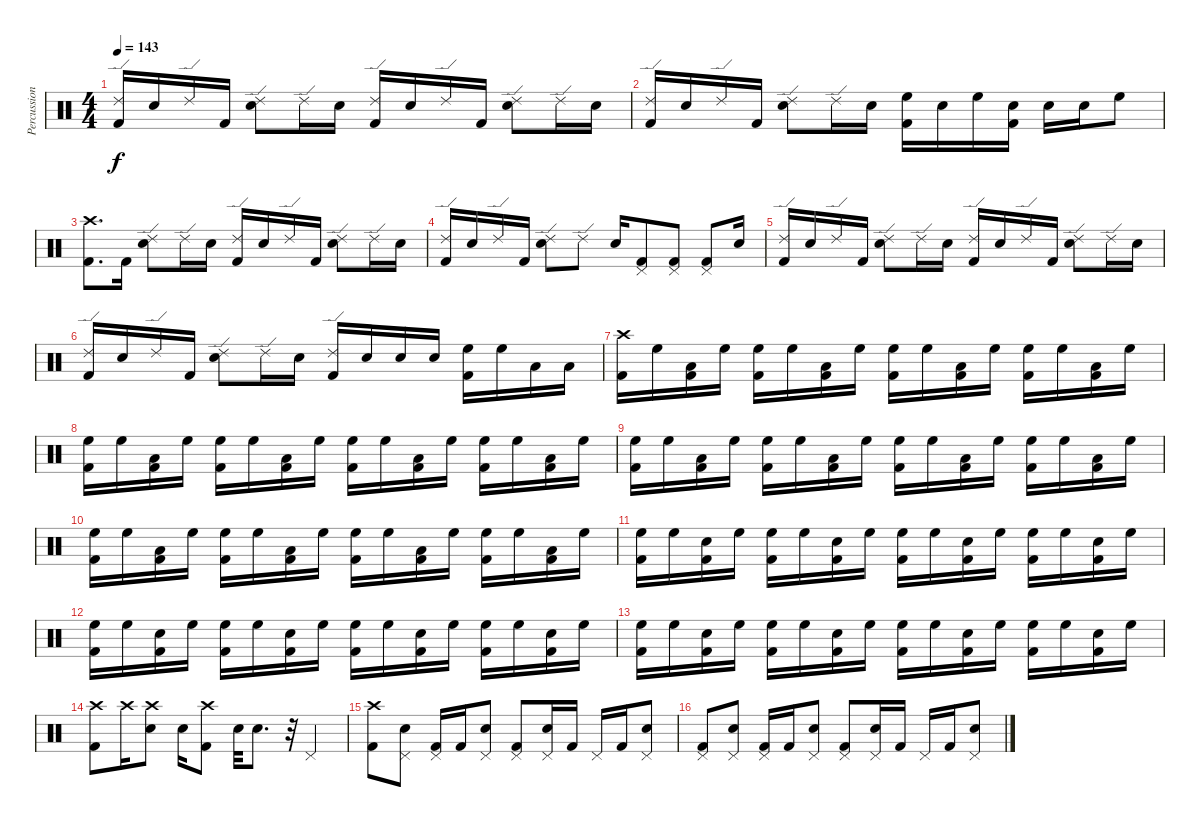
\track ("Percussion" "Percussion") {instrument percussion}
\staff {score}
\articulation defaults
\ts (4 4)
\tempo 143
\clef neutral
\ks c
("Ride (edge) 2" "Kick (hit) 2").16{dy f} "Electric Snare (hit)".16 "Ride (edge) 2".16 "Kick (hit) 2".16 ("Ride (edge) 2" "Electric Snare (hit)").8 "Ride (edge) 2".16 "Electric Snare (hit)".16 ("Ride (edge) 2" "Kick (hit) 2").16 "Electric Snare (hit)".16 "Ride (edge) 2".16 "Kick (hit) 2".16 ("Ride (edge) 2" "Electric Snare (hit)").8 "Ride (edge) 2".16 "Electric Snare (hit)".16 |
("Ride (edge) 2" "Kick (hit) 2").16 "Electric Snare (hit)".16 "Ride (edge) 2".16 "Kick (hit) 2".16 ("Ride (edge) 2" "Electric Snare (hit)").8 "Ride (edge) 2".16 "Electric Snare (hit)".16 ("High Floor Tom (hit)" "Kick (hit) 2").16 "Electric Snare (hit)".16 "High Floor Tom (hit)".16 ("Electric Snare (hit)" "Kick (hit) 2").16 "Electric Snare (hit)".16 "Electric Snare (hit)".16 "High Floor Tom (hit)".8 |
("Crash high (hit)" "Kick (hit) 2").8{d} "Kick (hit) 2".16 ("Ride (edge) 2" "Electric Snare (hit)").8 "Ride (edge) 2".16 "Electric Snare (hit)".16 ("Ride (edge) 2" "Kick (hit) 2").16 "Electric Snare (hit)".16 "Ride (edge) 2".16 "Kick (hit) 2".16 ("Ride (edge) 2" "Electric Snare (hit)").8 "Ride (edge) 2".16 "Electric Snare (hit)".16 |
("Ride (edge) 2" "Kick (hit) 2").16 "Electric Snare (hit)".16 "Ride (edge) 2".16 "Kick (hit) 2".16 ("Ride (edge) 2" "Electric Snare (hit)").8 "Ride (edge) 2".8 "Electric Snare (hit)".16 ("Pedal Hi-Hat (hit)" "Kick (hit) 2").8 ("Pedal Hi-Hat (hit)" "Kick (hit) 2").8 ("Pedal Hi-Hat (hit)" "Kick (hit) 2").8 "Electric Snare (hit)".16 |
("Ride (edge) 2" "Kick (hit) 2").16 "Electric Snare (hit)".16 "Ride (edge) 2".16 "Kick (hit) 2".16 ("Ride (edge) 2" "Electric Snare (hit)").8 "Ride (edge) 2".16 "Electric Snare (hit)".16 ("Ride (edge) 2" "Kick (hit) 2").16 "Electric Snare (hit)".16 "Ride (edge) 2".16 "Kick (hit) 2".16 ("Ride (edge) 2" "Electric Snare (hit)").8 "Ride (edge) 2".16 "Electric Snare (hit)".16 |
("Ride (edge) 2" "Kick (hit) 2").16 "Electric Snare (hit)".16 "Ride (edge) 2".16 "Kick (hit) 2".16 ("Ride (edge) 2" "Electric Snare (hit)").8 "Ride (edge) 2".16 "Electric Snare (hit)".16 ("Ride (edge) 2" "Kick (hit) 2").16 "Electric Snare (hit)".16 "Electric Snare (hit)".16 "Electric Snare (hit)".16 ("High Floor Tom (hit)" "Kick (hit) 2").16 "High Floor Tom (hit)".16 "Low Tom (hit)".16 "Low Tom (hit)".16 |
("Crash high (hit)" "Kick (hit) 2").16 "High Floor Tom (hit)".16 ("Low Tom (hit)" "Kick (hit) 2").16 "High Floor Tom (hit)".16 ("High Floor Tom (hit)" "Kick (hit) 2").16 "High Floor Tom (hit)".16 ("Low Tom (hit)" "Kick (hit) 2").16 "High Floor Tom (hit)".16 ("High Floor Tom (hit)" "Kick (hit) 2").16 "High Floor Tom (hit)".16 ("Low Tom (hit)" "Kick (hit) 2").16 "High Floor Tom (hit)".16 ("High Floor Tom (hit)" "Kick (hit) 2").16 "High Floor Tom (hit)".16 ("Low Tom (hit)" "Kick (hit) 2").16 "High Floor Tom (hit)".16 |
("High Floor Tom (hit)" "Kick (hit) 2").16 "High Floor Tom (hit)".16 ("Low Tom (hit)" "Kick (hit) 2").16 "High Floor Tom (hit)".16 ("High Floor Tom (hit)" "Kick (hit) 2").16 "High Floor Tom (hit)".16 ("Low Tom (hit)" "Kick (hit) 2").16 "High Floor Tom (hit)".16 ("High Floor Tom (hit)" "Kick (hit) 2").16 "High Floor Tom (hit)".16 ("Low Tom (hit)" "Kick (hit) 2").16 "High Floor Tom (hit)".16 ("High Floor Tom (hit)" "Kick (hit) 2").16 "High Floor Tom (hit)".16 ("Low Tom (hit)" "Kick (hit) 2").16 "High Floor Tom (hit)".16 |
("High Floor Tom (hit)" "Kick (hit) 2").16 "High Floor Tom (hit)".16 ("Low Tom (hit)" "Kick (hit) 2").16 "High Floor Tom (hit)".16 ("High Floor Tom (hit)" "Kick (hit) 2").16 "High Floor Tom (hit)".16 ("Low Tom (hit)" "Kick (hit) 2").16 "High Floor Tom (hit)".16 ("High Floor Tom (hit)" "Kick (hit) 2").16 "High Floor Tom (hit)".16 ("Low Tom (hit)" "Kick (hit) 2").16 "High Floor Tom (hit)".16 ("High Floor Tom (hit)" "Kick (hit) 2").16 "High Floor Tom (hit)".16 ("Low Tom (hit)" "Kick (hit) 2").16 "High Floor Tom (hit)".16 |
("High Floor Tom (hit)" "Kick (hit) 2").16 "High Floor Tom (hit)".16 ("Low Tom (hit)" "Kick (hit) 2").16 "High Floor Tom (hit)".16 ("High Floor Tom (hit)" "Kick (hit) 2").16 "High Floor Tom (hit)".16 ("Low Tom (hit)" "Kick (hit) 2").16 "High Floor Tom (hit)".16 ("High Floor Tom (hit)" "Kick (hit) 2").16 "High Floor Tom (hit)".16 ("Low Tom (hit)" "Kick (hit) 2").16 "High Floor Tom (hit)".16 ("High Floor Tom (hit)" "Kick (hit) 2").16 "High Floor Tom (hit)".16 ("Low Tom (hit)" "Kick (hit) 2").16 "High Floor Tom (hit)".16 |
("High Floor Tom (hit)" "Kick (hit) 2").16 "High Floor Tom (hit)".16 ("Electric Snare (hit)" "Kick (hit) 2").16 "High Floor Tom (hit)".16 ("High Floor Tom (hit)" "Kick (hit) 2").16 "High Floor Tom (hit)".16 ("Electric Snare (hit)" "Kick (hit) 2").16 "High Floor Tom (hit)".16 ("High Floor Tom (hit)" "Kick (hit) 2").16 "High Floor Tom (hit)".16 ("Electric Snare (hit)" "Kick (hit) 2").16 "High Floor Tom (hit)".16 ("High Floor Tom (hit)" "Kick (hit) 2").16 "High Floor Tom (hit)".16 ("Electric Snare (hit)" "Kick (hit) 2").16 "High Floor Tom (hit)".16 |
("High Floor Tom (hit)" "Kick (hit) 2").16 "High Floor Tom (hit)".16 ("Electric Snare (hit)" "Kick (hit) 2").16 "High Floor Tom (hit)".16 ("High Floor Tom (hit)" "Kick (hit) 2").16 "High Floor Tom (hit)".16 ("Electric Snare (hit)" "Kick (hit) 2").16 "High Floor Tom (hit)".16 ("High Floor Tom (hit)" "Kick (hit) 2").16 "High Floor Tom (hit)".16 ("Electric Snare (hit)" "Kick (hit) 2").16 "High Floor Tom (hit)".16 ("High Floor Tom (hit)" "Kick (hit) 2").16 "High Floor Tom (hit)".16 ("Electric Snare (hit)" "Kick (hit) 2").16 "High Floor Tom (hit)".16 |
("High Floor Tom (hit)" "Kick (hit) 2").16 "High Floor Tom (hit)".16 ("Electric Snare (hit)" "Kick (hit) 2").16 "High Floor Tom (hit)".16 ("High Floor Tom (hit)" "Kick (hit) 2").16 "High Floor Tom (hit)".16 ("Electric Snare (hit)" "Kick (hit) 2").16 "High Floor Tom (hit)".16 ("High Floor Tom (hit)" "Kick (hit) 2").16 "High Floor Tom (hit)".16 ("Electric Snare (hit)" "Kick (hit) 2").16 "High Floor Tom (hit)".16 ("High Floor Tom (hit)" "Kick (hit) 2").16 "High Floor Tom (hit)".16 ("Electric Snare (hit)" "Kick (hit) 2").16 "High Floor Tom (hit)".16 |
("Crash high (hit)" "Kick (hit) 2").8 "Crash high (hit)".16 ("Crash high (hit)" "Electric Snare (hit)").8 "Electric Snare (hit)".16 ("Crash high (hit)" "Kick (hit) 2").8 "Electric Snare (hit)".32 "Electric Snare (hit)".8{d} r.32 "Pedal Hi-Hat (hit)".4 |
("Crash high (hit)" "Kick (hit) 2").8 ("Pedal Hi-Hat (hit)" "Electric Snare (hit)").8 ("Pedal Hi-Hat (hit)" "Kick (hit) 2").16 "Kick (hit) 2".16 ("Pedal Hi-Hat (hit)" "Electric Snare (hit)").8 ("Pedal Hi-Hat (hit)" "Kick (hit) 2").8 ("Pedal Hi-Hat (hit)" "Electric Snare (hit)").16 "Kick (hit) 2".16 "Pedal Hi-Hat (hit)".16 "Kick (hit) 2".16 ("Pedal Hi-Hat (hit)" "Electric Snare (hit)").8 |
("Pedal Hi-Hat (hit)" "Kick (hit) 2").8 ("Pedal Hi-Hat (hit)" "Electric Snare (hit)").8 ("Pedal Hi-Hat (hit)" "Kick (hit) 2").16 "Kick (hit) 2".16 ("Pedal Hi-Hat (hit)" "Electric Snare (hit)").8 ("Pedal Hi-Hat (hit)" "Kick (hit) 2").8 ("Pedal Hi-Hat (hit)" "Electric Snare (hit)").16 "Kick (hit) 2".16 "Pedal Hi-Hat (hit)".16 "Kick (hit) 2".16 ("Pedal Hi-Hat (hit)" "Electric Snare (hit)").8
